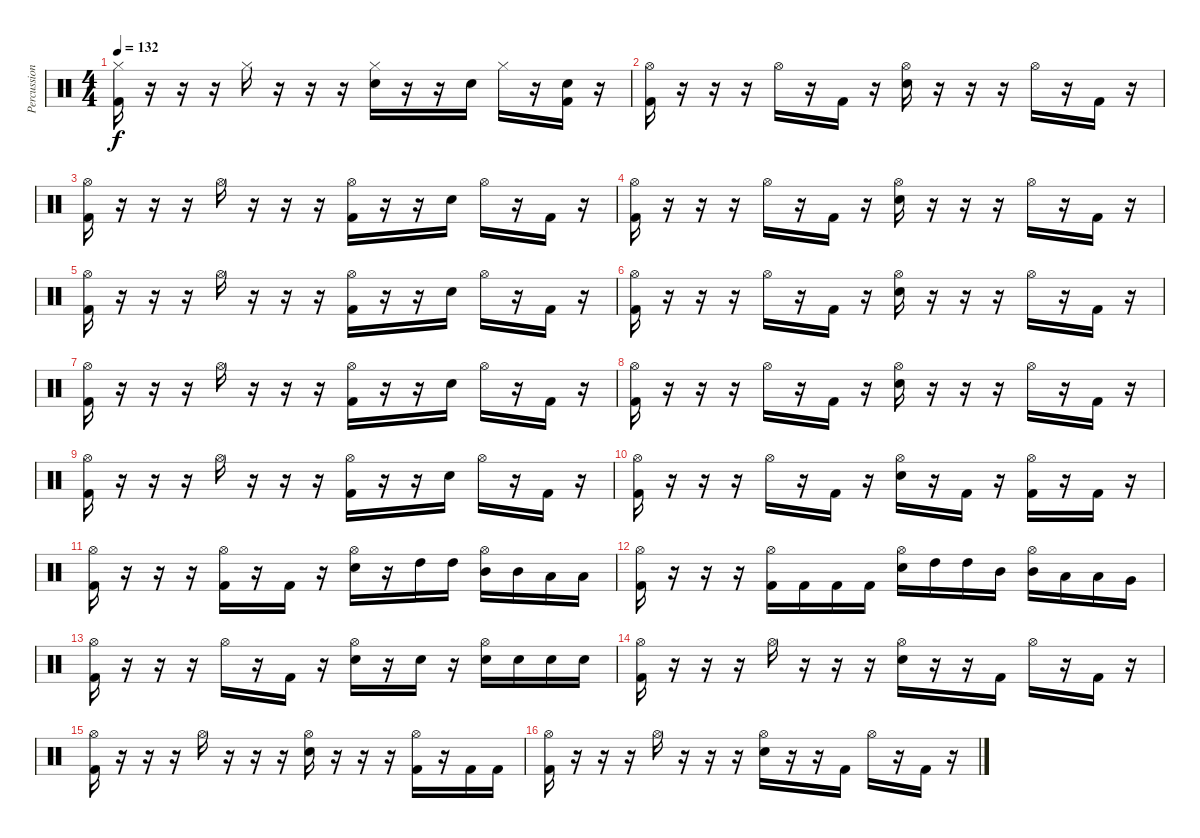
\track ("Percussion" "Percussion") {instrument percussion}
\staff {score}
\articulation defaults
\ts (4 4)
\tempo 132
\clef neutral
\ks c
("Hi-Hat (closed)" "Kick (hit) 2").16{dy f} r.16 r.16 r.16 "Hi-Hat (closed)".16 r.16 r.16 r.16 ("Hi-Hat (closed)" "Snare (hit) 2").16 r.16 r.16 "Snare (hit) 2".16 "Hi-Hat (closed)".16 r.16 ("Snare (hit) 2" "Kick (hit) 2").16 r.16 |
("Hi-Hat (open)" "Kick (hit) 2").16 r.16 r.16 r.16 "Hi-Hat (open)".16 r.16 "Kick (hit) 2".16 r.16 ("Hi-Hat (open)" "Snare (hit) 2").16 r.16 r.16 r.16 "Hi-Hat (open)".16 r.16 "Kick (hit) 2".16 r.16 |
("Hi-Hat (open)" "Kick (hit) 2").16 r.16 r.16 r.16 "Hi-Hat (open)".16 r.16 r.16 r.16 ("Hi-Hat (open)" "Kick (hit) 2").16 r.16 r.16 "Snare (hit) 2".16 "Hi-Hat (open)".16 r.16 "Kick (hit) 2".16 r.16 |
("Hi-Hat (open)" "Kick (hit) 2").16 r.16 r.16 r.16 "Hi-Hat (open)".16 r.16 "Kick (hit) 2".16 r.16 ("Hi-Hat (open)" "Snare (hit) 2").16 r.16 r.16 r.16 "Hi-Hat (open)".16 r.16 "Kick (hit) 2".16 r.16 |
("Hi-Hat (open)" "Kick (hit) 2").16 r.16 r.16 r.16 "Hi-Hat (open)".16 r.16 r.16 r.16 ("Hi-Hat (open)" "Kick (hit) 2").16 r.16 r.16 "Snare (hit) 2".16 "Hi-Hat (open)".16 r.16 "Kick (hit) 2".16 r.16 |
("Hi-Hat (open)" "Kick (hit) 2").16 r.16 r.16 r.16 "Hi-Hat (open)".16 r.16 "Kick (hit) 2".16 r.16 ("Hi-Hat (open)" "Snare (hit) 2").16 r.16 r.16 r.16 "Hi-Hat (open)".16 r.16 "Kick (hit) 2".16 r.16 |
("Hi-Hat (open)" "Kick (hit) 2").16 r.16 r.16 r.16 "Hi-Hat (open)".16 r.16 r.16 r.16 ("Hi-Hat (open)" "Kick (hit) 2").16 r.16 r.16 "Snare (hit) 2".16 "Hi-Hat (open)".16 r.16 "Kick (hit) 2".16 r.16 |
("Hi-Hat (open)" "Kick (hit) 2").16 r.16 r.16 r.16 "Hi-Hat (open)".16 r.16 "Kick (hit) 2".16 r.16 ("Hi-Hat (open)" "Snare (hit) 2").16 r.16 r.16 r.16 "Hi-Hat (open)".16 r.16 "Kick (hit) 2".16 r.16 |
("Hi-Hat (open)" "Kick (hit) 2").16 r.16 r.16 r.16 "Hi-Hat (open)".16 r.16 r.16 r.16 ("Hi-Hat (open)" "Kick (hit) 2").16 r.16 r.16 "Snare (hit) 2".16 "Hi-Hat (open)".16 r.16 "Kick (hit) 2".16 r.16 |
("Hi-Hat (open)" "Kick (hit) 2").16 r.16 r.16 r.16 "Hi-Hat (open)".16 r.16 "Kick (hit) 2".16 r.16 ("Hi-Hat (open)" "Snare (hit) 2").16 r.16 "Kick (hit) 2".16 r.16 ("Hi-Hat (open)" "Kick (hit) 2").16 r.16 "Kick (hit) 2".16 r.16 |
("Hi-Hat (open)" "Kick (hit) 2").16 r.16 r.16 r.16 ("Hi-Hat (open)" "Kick (hit) 2").16 r.16 "Kick (hit) 2".16 r.16 ("Hi-Hat (open)" "Snare (hit) 2").16 r.16 "High Tom (hit)".16 "High Tom (hit)".16 ("Hi-Hat (open)" "Mid Tom (hit)").16 "Mid Tom (hit)".16 "Low Tom (hit)".16 "Low Tom (hit)".16 |
("Hi-Hat (open)" "Kick (hit) 2").16 r.16 r.16 r.16 ("Hi-Hat (open)" "Kick (hit) 2").16 "Kick (hit) 2".16 "Kick (hit) 2".16 "Kick (hit) 2".16 ("Hi-Hat (open)" "Snare (hit) 2").16 "High Tom (hit)".16 "High Tom (hit)".16 "Mid Tom (hit)".16 ("Hi-Hat (open)" "Mid Tom (hit)").16 "Low Tom (hit)".16 "Low Tom (hit)".16 "Very Low Tom (hit)".16 |
("Hi-Hat (open)" "Kick (hit) 2").16 r.16 r.16 r.16 "Hi-Hat (open)".16 r.16 "Kick (hit) 2".16 r.16 ("Hi-Hat (open)" "Snare (hit) 2").16 r.16 "Snare (hit) 2".16 r.16 ("Hi-Hat (open)" "Snare (hit) 2").16 "Snare (hit) 2".16 "Snare (hit) 2".16 "Snare (hit) 2".16 |
("Hi-Hat (open)" "Kick (hit) 2").16 r.16 r.16 r.16 "Hi-Hat (open)".16 r.16 r.16 r.16 ("Hi-Hat (open)" "Snare (hit) 2").16 r.16 r.16 "Kick (hit) 2".16 "Hi-Hat (open)".16 r.16 "Kick (hit) 2".16 r.16 |
("Hi-Hat (open)" "Kick (hit) 2").16 r.16 r.16 r.16 "Hi-Hat (open)".16 r.16 r.16 r.16 ("Hi-Hat (open)" "Snare (hit) 2").16 r.16 r.16 r.16 ("Hi-Hat (open)" "Kick (hit) 2").16 r.16 "Kick (hit) 2".16 "Kick (hit) 2".16 |
("Hi-Hat (open)" "Kick (hit) 2").16 r.16 r.16 r.16 "Hi-Hat (open)".16 r.16 r.16 r.16 ("Hi-Hat (open)" "Snare (hit) 2").16 r.16 r.16 "Kick (hit) 2".16 "Hi-Hat (open)".16 r.16 "Kick (hit) 2".16 r.16
